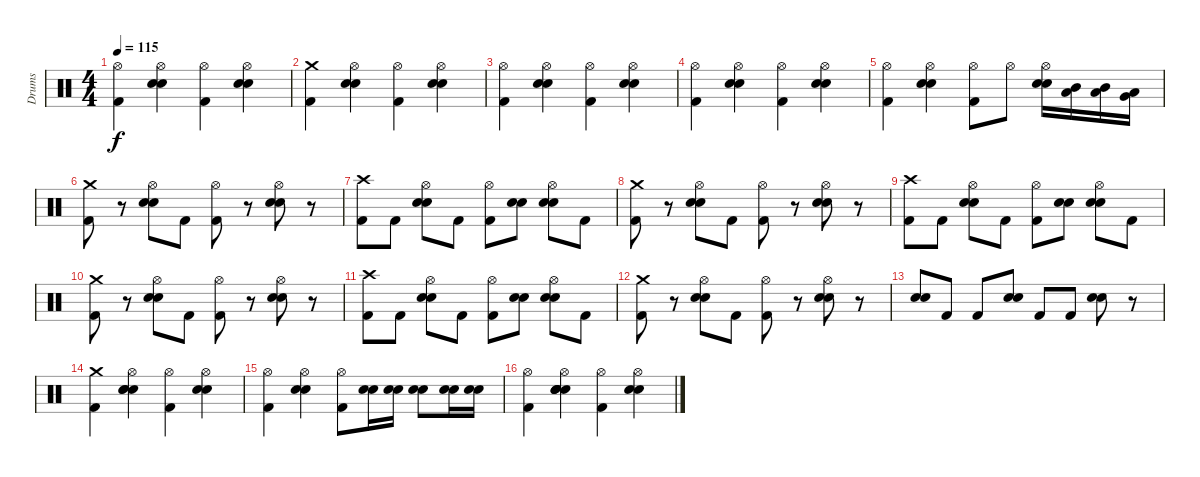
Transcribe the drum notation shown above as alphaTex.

\track ("Drums" "Drums") {instrument percussion}
\staff {score}
\articulation defaults
\ts (4 4)
\tempo 115
\clef neutral
\ks c
("Hi-Hat (open)" "Kick (hit) 2").4{dy f} ("Hi-Hat (open)" "Electric Snare (hit)" "Snare (hit) 2").4 ("Hi-Hat (open)" "Kick (hit) 2").4 ("Hi-Hat (open)" "Electric Snare (hit)" "Snare (hit) 2").4 |
("Crash medium (hit)" "Kick (hit) 2").4 ("Hi-Hat (open)" "Electric Snare (hit)" "Snare (hit) 2").4 ("Hi-Hat (open)" "Kick (hit) 2").4 ("Hi-Hat (open)" "Electric Snare (hit)" "Snare (hit) 2").4 |
("Hi-Hat (open)" "Kick (hit) 2").4 ("Hi-Hat (open)" "Electric Snare (hit)" "Snare (hit) 2").4 ("Hi-Hat (open)" "Kick (hit) 2").4 ("Hi-Hat (open)" "Electric Snare (hit)" "Snare (hit) 2").4 |
("Hi-Hat (open)" "Kick (hit) 2").4 ("Hi-Hat (open)" "Electric Snare (hit)" "Snare (hit) 2").4 ("Hi-Hat (open)" "Kick (hit) 2").4 ("Hi-Hat (open)" "Electric Snare (hit)" "Snare (hit) 2").4 |
("Hi-Hat (open)" "Kick (hit) 2").4 ("Hi-Hat (open)" "Electric Snare (hit)" "Snare (hit) 2").4 ("Hi-Hat (open)" "Kick (hit) 2").8 "Hi-Hat (open)".8 ("Hi-Hat (open)" "Electric Snare (hit)" "Snare (hit) 2").16 ("Mid Tom (hit)" "Low Tom (hit)").16 ("Mid Tom (hit)" "Low Tom (hit)").16 ("Low Tom (hit)" "Very Low Tom (hit)").16 |
("Crash medium (hit)" "Kick (hit) 2").8 r.8 ("Hi-Hat (open)" "Snare (hit) 2" "Electric Snare (hit)").8 "Kick (hit) 2".8 ("Hi-Hat (open)" "Kick (hit) 2").8 r.8 ("Hi-Hat (open)" "Snare (hit) 2" "Electric Snare (hit)").8 r.8 |
("Crash high (hit)" "Kick (hit) 2").8 "Kick (hit) 2".8 ("Hi-Hat (open)" "Snare (hit) 2" "Electric Snare (hit)").8 "Kick (hit) 2".8 ("Hi-Hat (open)" "Kick (hit) 2").8 ("Snare (hit) 2" "Electric Snare (hit)").8 ("Hi-Hat (open)" "Electric Snare (hit)" "Snare (hit) 2").8 "Kick (hit) 2".8 |
("Crash medium (hit)" "Kick (hit) 2").8 r.8 ("Hi-Hat (open)" "Snare (hit) 2" "Electric Snare (hit)").8 "Kick (hit) 2".8 ("Hi-Hat (open)" "Kick (hit) 2").8 r.8 ("Hi-Hat (open)" "Snare (hit) 2" "Electric Snare (hit)").8 r.8 |
("Crash high (hit)" "Kick (hit) 2").8 "Kick (hit) 2".8 ("Hi-Hat (open)" "Snare (hit) 2" "Electric Snare (hit)").8 "Kick (hit) 2".8 ("Hi-Hat (open)" "Kick (hit) 2").8 ("Snare (hit) 2" "Electric Snare (hit)").8 ("Hi-Hat (open)" "Electric Snare (hit)" "Snare (hit) 2").8 "Kick (hit) 2".8 |
("Crash medium (hit)" "Kick (hit) 2").8 r.8 ("Hi-Hat (open)" "Snare (hit) 2" "Electric Snare (hit)").8 "Kick (hit) 2".8 ("Hi-Hat (open)" "Kick (hit) 2").8 r.8 ("Hi-Hat (open)" "Snare (hit) 2" "Electric Snare (hit)").8 r.8 |
("Crash high (hit)" "Kick (hit) 2").8 "Kick (hit) 2".8 ("Hi-Hat (open)" "Snare (hit) 2" "Electric Snare (hit)").8 "Kick (hit) 2".8 ("Hi-Hat (open)" "Kick (hit) 2").8 ("Snare (hit) 2" "Electric Snare (hit)").8 ("Hi-Hat (open)" "Electric Snare (hit)" "Snare (hit) 2").8 "Kick (hit) 2".8 |
("Crash medium (hit)" "Kick (hit) 2").8 r.8 ("Hi-Hat (open)" "Electric Snare (hit)" "Snare (hit) 2").8 "Kick (hit) 2".8 ("Hi-Hat (open)" "Kick (hit) 2").8 r.8 ("Hi-Hat (open)" "Electric Snare (hit)" "Snare (hit) 2").8 r.8 |
("Electric Snare (hit)" "Snare (hit) 2").8 "Kick (hit) 2".8 "Kick (hit) 2".8 ("Electric Snare (hit)" "Snare (hit) 2").8 "Kick (hit) 2".8 "Kick (hit) 2".8 ("Electric Snare (hit)" "Snare (hit) 2").8 r.8 |
("Crash medium (hit)" "Kick (hit) 2").4 ("Hand Clap (hit)" "Hi-Hat (open)" "Electric Snare (hit)" "Snare (hit) 2").4 ("Hi-Hat (open)" "Kick (hit) 2").4 ("Hi-Hat (open)" "Electric Snare (hit)" "Snare (hit) 2").4 |
("Hi-Hat (open)" "Kick (hit) 2").4 ("Hi-Hat (open)" "Electric Snare (hit)" "Snare (hit) 2").4 ("Hi-Hat (open)" "Kick (hit) 2").8 ("Electric Snare (hit)" "Snare (hit) 2").16 ("Electric Snare (hit)" "Snare (hit) 2").16 ("Electric Snare (hit)" "Snare (hit) 2").8 ("Electric Snare (hit)" "Snare (hit) 2").16 ("Electric Snare (hit)" "Snare (hit) 2").16 |
("Hi-Hat (open)" "Kick (hit) 2").4 ("Snare (hit) 2" "Electric Snare (hit)" "Hi-Hat (open)" "Electric Snare (hit)" "Hand Clap (hit)").4 ("Hi-Hat (open)" "Kick (hit) 2").4 ("Hi-Hat (open)" "Electric Snare (hit)" "Snare (hit) 2").4
